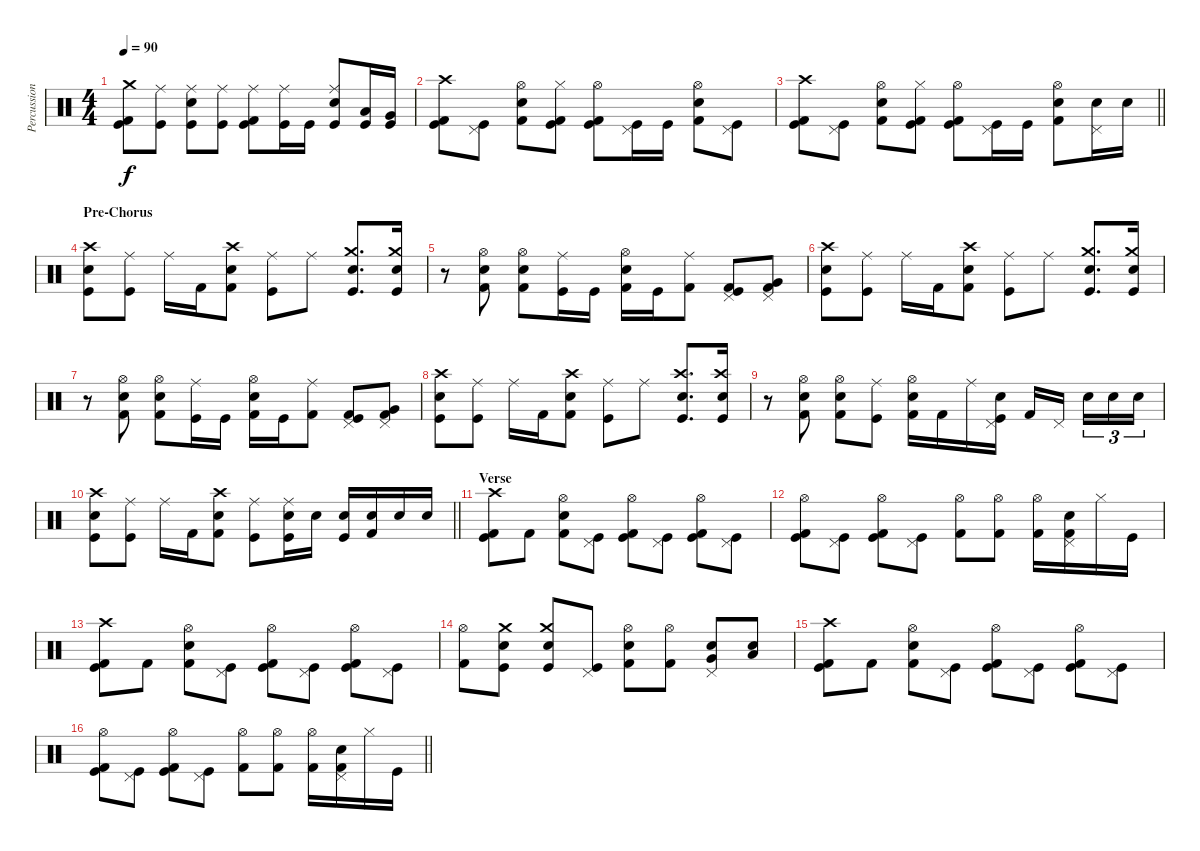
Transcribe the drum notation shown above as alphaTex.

\track ("Percussion" "Percussion") {instrument percussion}
\staff {score}
\articulation defaults
\ts (4 4)
\tempo 90
\clef neutral
\ks c
("Kick (hit)" "Kick (hit) 2" "Crash medium (hit)").8{dy f} ("Kick (hit)" "Ride (middle)").8 ("Kick (hit)" "Electric Snare (hit)" "Ride (middle)").8 ("Kick (hit)" "Ride (middle)").8 ("Kick (hit)" "Kick (hit) 2" "Ride (middle)").8 ("Kick (hit)" "Ride (middle)").16 "Kick (hit)".16 ("Kick (hit)" "Electric Snare (hit)" "Ride (middle)").8 ("Kick (hit)" "Low Tom (hit)").16 ("Kick (hit)" "Very Low Tom (hit)").16 |
("Kick (hit)" "Kick (hit) 2" "Crash high (hit)").8 ("Kick (hit)" "Pedal Hi-Hat (hit)").8 ("Kick (hit) 2" "Electric Snare (hit)" "Hi-Hat (open)").8 ("Kick (hit)" "Kick (hit) 2" "Hi-Hat (closed)").8 ("Kick (hit)" "Kick (hit) 2" "Hi-Hat (open)").8 ("Kick (hit)" "Pedal Hi-Hat (hit)").16 "Kick (hit)".16 ("Kick (hit) 2" "Electric Snare (hit)" "Hi-Hat (open)").8 ("Kick (hit)" "Pedal Hi-Hat (hit)").8 |
\barLineRight lightlight
("Kick (hit)" "Kick (hit) 2" "Crash high (hit)").8 ("Kick (hit)" "Pedal Hi-Hat (hit)").8 ("Kick (hit) 2" "Electric Snare (hit)" "Hi-Hat (open)").8 ("Kick (hit)" "Kick (hit) 2" "Hi-Hat (closed)").8 ("Kick (hit)" "Kick (hit) 2" "Hi-Hat (open)").8 ("Kick (hit)" "Pedal Hi-Hat (hit)").16 "Kick (hit)".16 ("Kick (hit) 2" "Electric Snare (hit)" "Hi-Hat (open)").8 ("Electric Snare (hit)" "Pedal Hi-Hat (hit)").16 "Electric Snare (hit)".16 |
\section ("" "Pre-Chorus")
("Kick (hit)" "Snare (hit) 2" "Crash high (hit)").8 ("Kick (hit)" "Ride (middle)").8 "Ride (middle)".16 "Kick (hit) 2".16 ("Kick (hit) 2" "Snare (hit) 2" "Crash high (hit)").8 ("Kick (hit)" "Ride (middle)").8 "Ride (middle)".8 ("Kick (hit)" "Snare (hit) 2" "Crash medium (hit)").8{d} ("Kick (hit)" "Snare (hit) 2" "Crash medium (hit)").16 |
r.8 ("Kick (hit) 2" "Electric Snare (hit)" "Hi-Hat (open)").8 ("Kick (hit) 2" "Electric Snare (hit)" "Hi-Hat (open)").8 ("Kick (hit)" "Ride (middle)").16 "Kick (hit)".16 ("Kick (hit) 2" "Electric Snare (hit)" "Hi-Hat (open)").16 "Kick (hit)".16 ("Kick (hit) 2" "Ride (middle)").8 ("Kick (hit)" "Kick (hit) 2" "Pedal Hi-Hat (hit)").8 ("Kick (hit) 2" "Very Low Tom (hit)" "Pedal Hi-Hat (hit)").8 |
("Kick (hit)" "Snare (hit) 2" "Crash high (hit)").8 ("Kick (hit)" "Ride (middle)").8 "Ride (middle)".16 "Kick (hit) 2".16 ("Kick (hit) 2" "Snare (hit) 2" "Crash high (hit)").8 ("Kick (hit)" "Ride (middle)").8 "Ride (middle)".8 ("Kick (hit)" "Snare (hit) 2" "Crash medium (hit)").8{d} ("Kick (hit)" "Snare (hit) 2" "Crash medium (hit)").16 |
r.8 ("Kick (hit) 2" "Electric Snare (hit)" "Hi-Hat (open)").8 ("Kick (hit) 2" "Electric Snare (hit)" "Hi-Hat (open)").8 ("Kick (hit)" "Ride (middle)").16 "Kick (hit)".16 ("Kick (hit) 2" "Electric Snare (hit)" "Hi-Hat (open)").16 "Kick (hit)".16 ("Kick (hit) 2" "Ride (middle)").8 ("Kick (hit)" "Kick (hit) 2" "Pedal Hi-Hat (hit)").8 ("Kick (hit) 2" "Very Low Tom (hit)" "Pedal Hi-Hat (hit)").8 |
("Kick (hit)" "Snare (hit) 2" "Crash high (hit)").8 ("Kick (hit)" "Ride (middle)").8 "Ride (middle)".16 "Kick (hit) 2".16 ("Kick (hit) 2" "Snare (hit) 2" "Crash high (hit)").8 ("Kick (hit)" "Ride (middle)").8 "Ride (middle)".8 ("Kick (hit)" "Snare (hit) 2" "Crash high (hit)").8{d} ("Kick (hit)" "Snare (hit) 2" "Crash high (hit)").16 |
r.8 ("Kick (hit) 2" "Electric Snare (hit)" "Hi-Hat (open)").8 ("Kick (hit) 2" "Electric Snare (hit)" "Hi-Hat (open)").8 ("Kick (hit)" "Ride (middle)").8 ("Kick (hit) 2" "Electric Snare (hit)" "Hi-Hat (open)").16 "Kick (hit) 2".16 "Ride (middle)".16 ("Kick (hit)" "Snare (hit) 2" "Pedal Hi-Hat (hit)").16 "Kick (hit) 2".16 "Pedal Hi-Hat (hit)".16{beam splitsecondary} "Snare (hit) 2".16{tu (3 2)} "Electric Snare (hit)".16{tu (3 2)} "Electric Snare (hit)".16{tu (3 2)} |
\barLineRight lightlight
("Kick (hit)" "Snare (hit) 2" "Crash high (hit)").8 ("Kick (hit)" "Ride (middle)").8 "Ride (middle)".16 "Kick (hit) 2".16 ("Kick (hit) 2" "Snare (hit) 2" "Crash high (hit)").8 ("Kick (hit)" "Ride (middle)").8 ("Kick (hit)" "Snare (hit) 2" "Ride (middle)").16 "Electric Snare (hit)".16 ("Kick (hit)" "Snare (hit) 2").16 ("Kick (hit) 2" "Electric Snare (hit)").16 "Electric Snare (hit)".16 "Electric Snare (hit)".16 |
\section ("" "Verse")
("Kick (hit)" "Kick (hit) 2" "Crash high (hit)").8 "Kick (hit) 2".8 ("Kick (hit) 2" "Electric Snare (hit)" "Hi-Hat (open)").8 ("Kick (hit)" "Pedal Hi-Hat (hit)").8 ("Kick (hit)" "Kick (hit) 2" "Hi-Hat (open)").8 ("Kick (hit)" "Pedal Hi-Hat (hit)").8 ("Kick (hit)" "Kick (hit) 2" "Hi-Hat (open)").8 ("Kick (hit)" "Pedal Hi-Hat (hit)").8 |
("Kick (hit)" "Kick (hit) 2" "Hi-Hat (open)").8 ("Kick (hit)" "Pedal Hi-Hat (hit)").8 ("Kick (hit)" "Kick (hit) 2" "Hi-Hat (open)").8 ("Kick (hit)" "Pedal Hi-Hat (hit)").8 ("Kick (hit) 2" "Hi-Hat (open)").8 ("Kick (hit) 2" "Hi-Hat (open)").8 ("Kick (hit) 2" "Hi-Hat (open)").16 ("Kick (hit) 2" "Electric Snare (hit)" "Pedal Hi-Hat (hit)").16 "Hi-Hat (closed)".16 "Kick (hit)".16 |
("Kick (hit)" "Kick (hit) 2" "Crash high (hit)").8 "Kick (hit) 2".8 ("Kick (hit) 2" "Electric Snare (hit)" "Hi-Hat (open)").8 ("Kick (hit)" "Pedal Hi-Hat (hit)").8 ("Kick (hit)" "Kick (hit) 2" "Hi-Hat (open)").8 ("Kick (hit)" "Pedal Hi-Hat (hit)").8 ("Kick (hit)" "Kick (hit) 2" "Hi-Hat (open)").8 ("Kick (hit)" "Pedal Hi-Hat (hit)").8 |
("Kick (hit) 2" "Hi-Hat (open)").8 ("Kick (hit)" "Snare (hit) 2" "Crash medium (hit)").8 ("Kick (hit)" "Snare (hit) 2" "Crash medium (hit)").8 ("Kick (hit)" "Pedal Hi-Hat (hit)").8 ("Kick (hit) 2" "Electric Snare (hit)" "Hi-Hat (open)").8 ("Kick (hit) 2" "Hi-Hat (open)").8 ("Very Low Tom (hit)" "Electric Snare (hit)" "Pedal Hi-Hat (hit)").8 ("Low Floor Tom (hit)" "Electric Snare (hit)").8 |
("Kick (hit)" "Kick (hit) 2" "Crash high (hit)").8 "Kick (hit) 2".8 ("Kick (hit) 2" "Electric Snare (hit)" "Hi-Hat (open)").8 ("Kick (hit)" "Pedal Hi-Hat (hit)").8 ("Kick (hit)" "Kick (hit) 2" "Hi-Hat (open)").8 ("Kick (hit)" "Pedal Hi-Hat (hit)").8 ("Kick (hit)" "Kick (hit) 2" "Hi-Hat (open)").8 ("Kick (hit)" "Pedal Hi-Hat (hit)").8 |
\barLineRight lightlight
("Kick (hit)" "Kick (hit) 2" "Hi-Hat (open)").8 ("Kick (hit)" "Pedal Hi-Hat (hit)").8 ("Kick (hit)" "Kick (hit) 2" "Hi-Hat (open)").8 ("Kick (hit)" "Pedal Hi-Hat (hit)").8 ("Kick (hit) 2" "Hi-Hat (open)").8 ("Kick (hit) 2" "Hi-Hat (open)").8 ("Kick (hit) 2" "Hi-Hat (open)").16 ("Kick (hit) 2" "Electric Snare (hit)" "Pedal Hi-Hat (hit)").16 "Hi-Hat (closed)".16 "Kick (hit)".16
